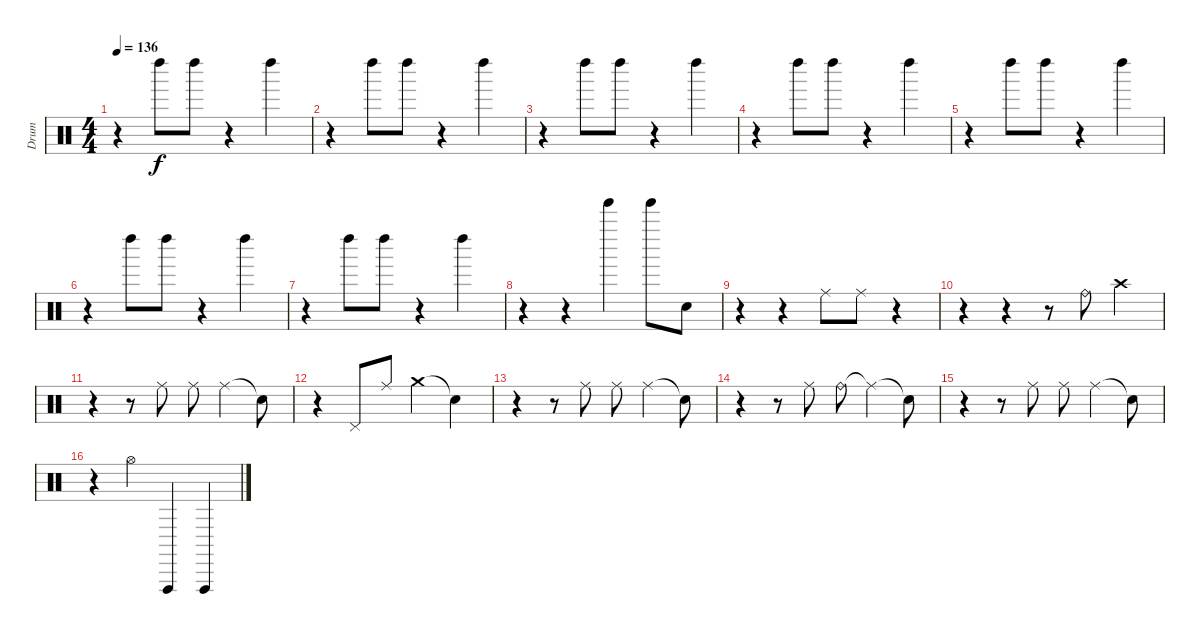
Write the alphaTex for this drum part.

\track ("Drum" "Drum") {instrument percussion}
\staff {score}
\articulation defaults
\ts (4 4)
\tempo 136
\clef neutral
\ks c
r.4{dy f} "Left Maraca (hit)".8 "Left Maraca (hit)".8 r.4 "Left Maraca (hit)".4 |
r.4 "Left Maraca (hit)".8 "Left Maraca (hit)".8 r.4 "Left Maraca (hit)".4 |
r.4 "Left Maraca (hit)".8 "Left Maraca (hit)".8 r.4 "Left Maraca (hit)".4 |
r.4 "Left Maraca (hit)".8 "Left Maraca (hit)".8 r.4 "Left Maraca (hit)".4 |
r.4 "Left Maraca (hit)".8 "Left Maraca (hit)".8 r.4 "Left Maraca (hit)".4 |
r.4 "Left Maraca (hit)".8 "Left Maraca (hit)".8 r.4 "Left Maraca (hit)".4 |
r.4 "Left Maraca (hit)".8 "Left Maraca (hit)".8 r.4 "Left Maraca (hit)".4 |
r.4 r.4 "Tinkle Bell (hit)".4 "Tinkle Bell (hit)".8 "Electric Snare (hit)".8 |
r.4 r.4 "Ride (middle)".8 "Ride (middle)".8 r.4 |
r.4 r.4 r.8 "Ride (bell)".8 "Crash high (hit)".4 |
r.4 r.8 "Ride (middle)".8 "Ride (middle)".8 "Ride (middle)".4 "Snare (hit)"{t}.8 |
r.4 "Pedal Hi-Hat (hit)".8 "Ride (middle)".8 "Crash medium (hit)".4 "Snare (hit)"{t}.4 |
r.4 r.8 "Ride (middle)".8 "Ride (middle)".8 "Ride (middle)".4 "Snare (hit)"{t}.8 |
r.4 r.8 "Ride (middle)".8 "Ride (bell)".8 "Ride (middle)"{t}.4 "Snare (hit)"{t}.8 |
r.4 r.8 "Ride (middle)".8 "Ride (middle)".8 "Ride (middle)".4 "Snare (hit)"{t}.8 |
r.4 "Hi-Hat (open)".4 "Vibraslap (hit)".4 "Vibraslap (hit)".4
